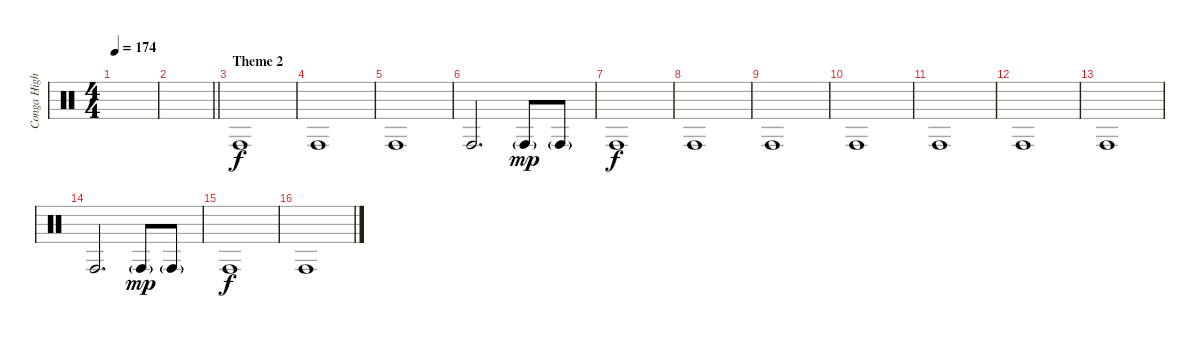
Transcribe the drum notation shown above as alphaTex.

\track ("Conga High" "Conga High") {instrument percussion}
\staff {score}
\articulation defaults
\ts (4 4)
\tempo 174
\clef neutral
\ks c
|
\barLineRight lightlight
|
\section ("" "Theme 2")
"Conga high (hit)".1 |
"Conga high (hit)".1 |
"Conga high (hit)".1 |
"Conga high (hit)".2{d} "Conga high (hit)"{g}.8{dy mp} "Conga high (hit)"{g}.8 |
"Conga high (hit)".1{dy f} |
"Conga high (hit)".1 |
"Conga high (hit)".1 |
"Conga high (hit)".1 |
"Conga high (hit)".1 |
"Conga high (hit)".1 |
"Conga high (hit)".1 |
"Conga high (hit)".2{d} "Conga high (hit)"{g}.8{dy mp} "Conga high (hit)"{g}.8 |
"Conga high (hit)".1{dy f} |
"Conga high (hit)".1
